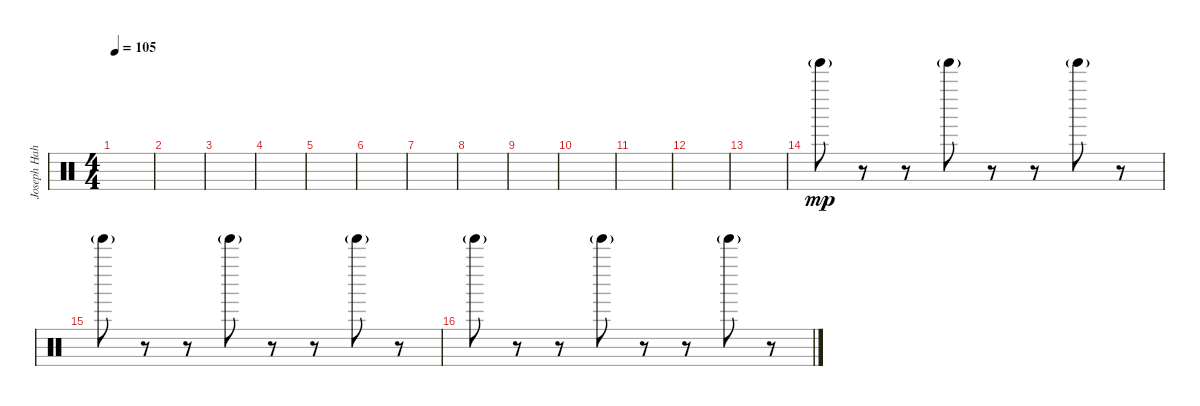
\track ("Joseph Hahn (Sampler 3)" "Joseph Hah") {instrument percussion}
\staff {score}
\articulation defaults
\ts (4 4)
\tempo 105
\clef neutral
\ks c
|
|
|
|
|
|
|
|
|
|
|
|
|
"Tinkle Bell (hit)"{g}.8{dy mp} r.8 r.8 "Tinkle Bell (hit)"{g}.8 r.8 r.8 "Tinkle Bell (hit)"{g}.8 r.8 |
"Tinkle Bell (hit)"{g}.8 r.8 r.8 "Tinkle Bell (hit)"{g}.8 r.8 r.8 "Tinkle Bell (hit)"{g}.8 r.8 |
"Tinkle Bell (hit)"{g}.8 r.8 r.8 "Tinkle Bell (hit)"{g}.8 r.8 r.8 "Tinkle Bell (hit)"{g}.8 r.8
